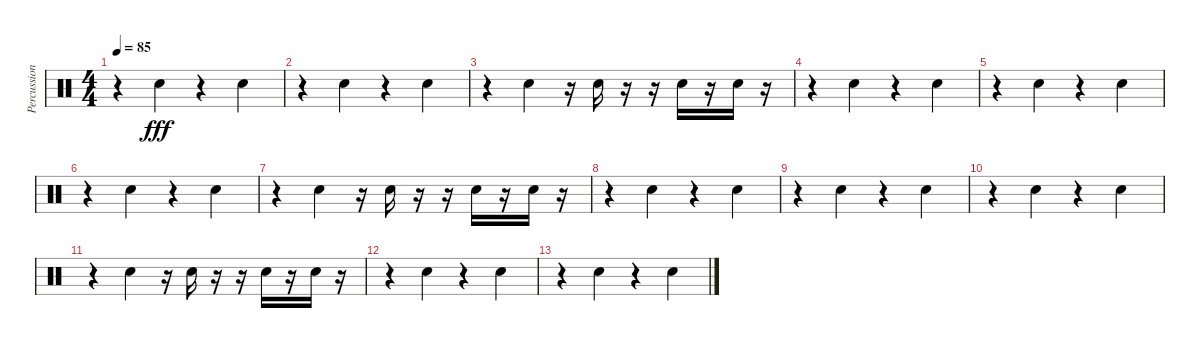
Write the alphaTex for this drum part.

\track ("Percussion" "Percussion") {instrument percussion}
\staff {score}
\articulation defaults
\ts (4 4)
\tempo 85
\clef neutral
\ks c
r.4{dy fff} "Snare (hit) 2".4 r.4 "Snare (hit) 2".4 |
r.4 "Snare (hit) 2".4 r.4 "Snare (hit) 2".4 |
r.4 "Snare (hit) 2".4 r.16 "Snare (hit) 2".16 r.16 r.16 "Snare (hit) 2".16 r.16 "Snare (hit) 2".16 r.16 |
r.4 "Snare (hit) 2".4 r.4 "Snare (hit) 2".4 |
r.4 "Snare (hit) 2".4 r.4 "Snare (hit) 2".4 |
r.4 "Snare (hit) 2".4 r.4 "Snare (hit) 2".4 |
r.4 "Snare (hit) 2".4 r.16 "Snare (hit) 2".16 r.16 r.16 "Snare (hit) 2".16 r.16 "Snare (hit) 2".16 r.16 |
r.4 "Snare (hit) 2".4 r.4 "Snare (hit) 2".4 |
r.4 "Snare (hit) 2".4 r.4 "Snare (hit) 2".4 |
r.4 "Snare (hit) 2".4 r.4 "Snare (hit) 2".4 |
r.4 "Snare (hit) 2".4 r.16 "Snare (hit) 2".16 r.16 r.16 "Snare (hit) 2".16 r.16 "Snare (hit) 2".16 r.16 |
r.4 "Snare (hit) 2".4 r.4 "Snare (hit) 2".4 |
r.4 "Snare (hit) 2".4 r.4 "Snare (hit) 2".4
